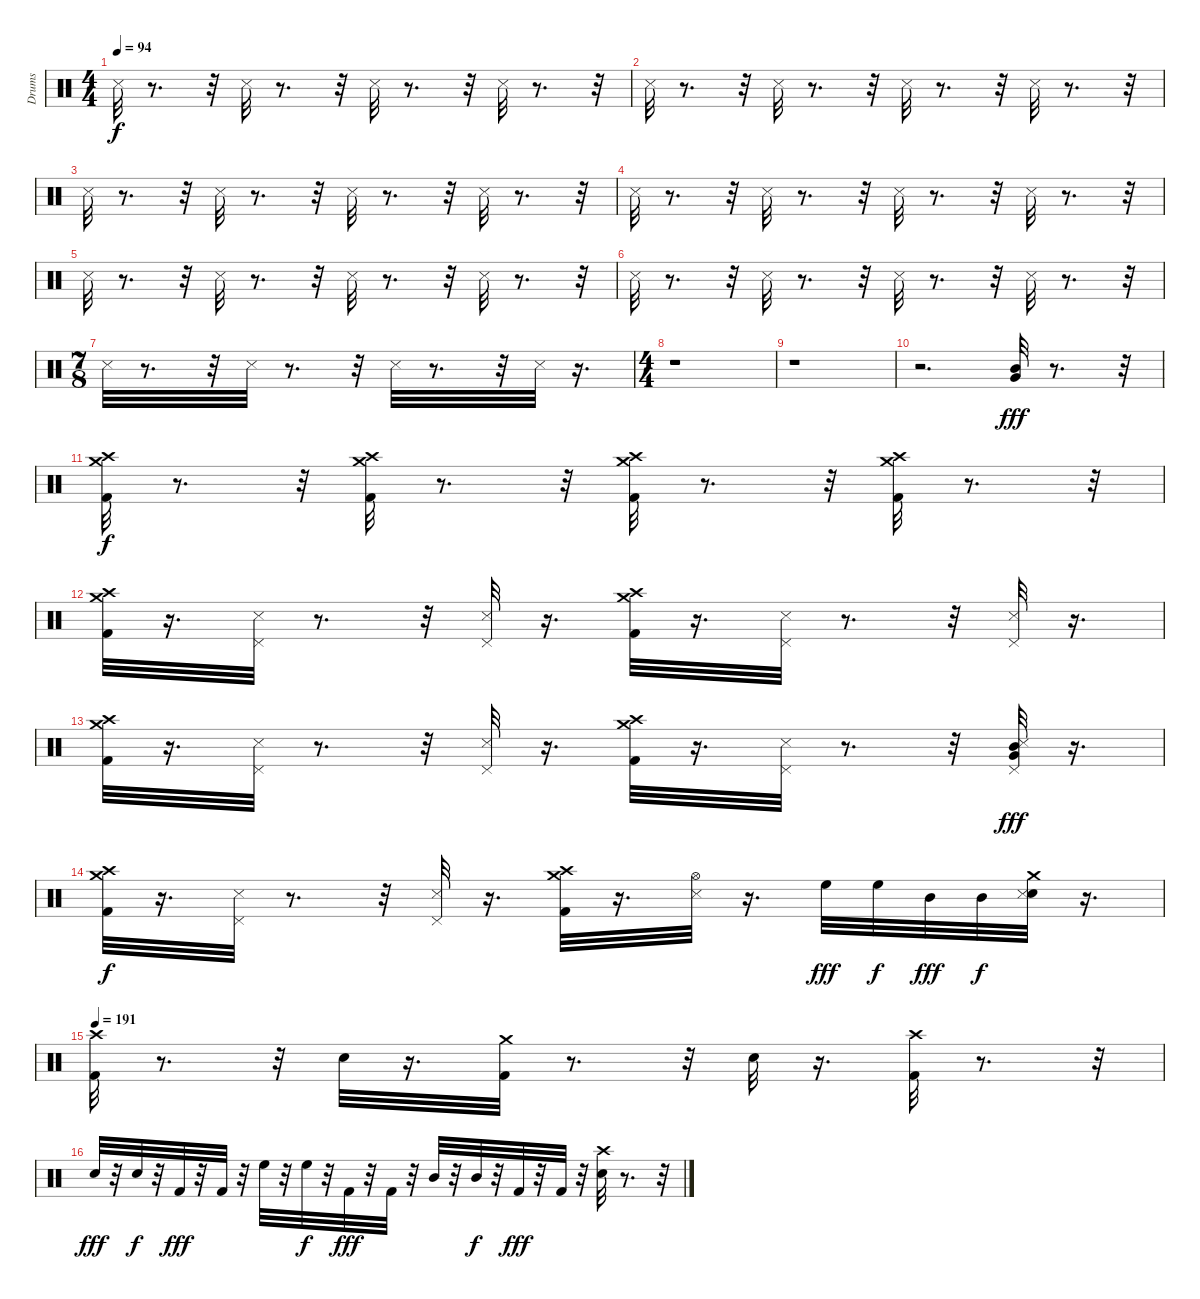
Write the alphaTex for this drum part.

\track ("Drums" "Drums") {instrument percussion}
\staff {score}
\articulation defaults
\ts (4 4)
\tempo 94
\clef neutral
\ks c "Snare (side stick) 3".32{dy f}
r.8{d} r.32 "Snare (side stick) 3".32 r.8{d} r.32 "Snare (side stick) 3".32 r.8{d} r.32 "Snare (side stick) 3".32 r.8{d} r.32 |
"Snare (side stick) 3".32 r.8{d} r.32 "Snare (side stick) 3".32 r.8{d} r.32 "Snare (side stick) 3".32 r.8{d} r.32 "Snare (side stick) 3".32 r.8{d} r.32 |
"Snare (side stick) 3".32 r.8{d} r.32 "Snare (side stick) 3".32 r.8{d} r.32 "Snare (side stick) 3".32 r.8{d} r.32 "Snare (side stick) 3".32 r.8{d} r.32 |
"Snare (side stick) 3".32 r.8{d} r.32 "Snare (side stick) 3".32 r.8{d} r.32 "Snare (side stick) 3".32 r.8{d} r.32 "Snare (side stick) 3".32 r.8{d} r.32 |
"Snare (side stick) 3".32 r.8{d} r.32 "Snare (side stick) 3".32 r.8{d} r.32 "Snare (side stick) 3".32 r.8{d} r.32 "Snare (side stick) 3".32 r.8{d} r.32 |
"Snare (side stick) 3".32 r.8{d} r.32 "Snare (side stick) 3".32 r.8{d} r.32 "Snare (side stick) 3".32 r.8{d} r.32 "Snare (side stick) 3".32 r.8{d} r.32 |
\ts (7 8)
"Snare (side stick) 3".32 r.8{d} r.32 "Snare (side stick) 3".32 r.8{d} r.32 "Snare (side stick) 3".32 r.8{d} r.32 "Snare (side stick) 3".32 r.16{d} |
\ts (4 4)
r.1 |
r.1 |
r.2{d} ("Mid Tom (hit)" "Very Low Tom (hit)").32{dy fff} r.8{d} r.32 |
("Crash high (hit)" "Kick (hit) 2" "Crash medium (hit)").32{dy f} r.8{d} r.32 ("Crash high (hit)" "Kick (hit) 2" "Crash medium (hit)").32 r.8{d} r.32 ("Crash high (hit)" "Kick (hit) 2" "Crash medium (hit)").32 r.8{d} r.32 ("Crash high (hit)" "Kick (hit) 2" "Crash medium (hit)").32 r.8{d} r.32 |
("Crash high (hit)" "Kick (hit) 2" "Crash medium (hit)").32 r.16{d} ("Pedal Hi-Hat (hit)" "Snare (side stick) 3").32 r.8{d} r.32 ("Pedal Hi-Hat (hit)" "Snare (side stick) 3").32 r.16{d} ("Crash high (hit)" "Kick (hit) 2" "Crash medium (hit)").32 r.16{d} ("Pedal Hi-Hat (hit)" "Snare (side stick) 3").32 r.8{d} r.32 ("Pedal Hi-Hat (hit)" "Snare (side stick) 3").32 r.16{d} |
("Crash high (hit)" "Kick (hit) 2" "Crash medium (hit)").32 r.16{d} ("Pedal Hi-Hat (hit)" "Snare (side stick) 3").32 r.8{d} r.32 ("Pedal Hi-Hat (hit)" "Snare (side stick) 3").32 r.16{d} ("Crash high (hit)" "Kick (hit) 2" "Crash medium (hit)").32 r.16{d} ("Pedal Hi-Hat (hit)" "Snare (side stick) 3").32 r.8{d} r.32 ("Pedal Hi-Hat (hit)" "Mid Tom (hit)" "Snare (side stick) 3" "Very Low Tom (hit)").32{dy fff} r.16{d} |
("Crash high (hit)" "Kick (hit) 2" "Crash medium (hit)").32{dy f} r.16{d} ("Pedal Hi-Hat (hit)" "Snare (side stick) 3").32 r.8{d} r.32 ("Pedal Hi-Hat (hit)" "Snare (side stick) 3").32 r.16{d} ("Crash high (hit)" "Kick (hit) 2" "Crash medium (hit)").32 r.16{d} ("Hi-Hat (open)" "Snare (side stick) 3").32 r.16{d} "High Floor Tom (hit)".32{dy fff} "High Floor Tom (hit)".32{dy f} "Mid Tom (hit)".32{dy fff} "Mid Tom (hit)".32{dy f} ("Crash medium (hit)" "Snare (hit) 2" "Snare (side stick) 3").32 r.16{d} |
\tempo 191
("Kick (hit) 2" "Crash high (hit)").32 r.8{d} r.32 "Snare (hit) 2".32 r.16{d} ("Kick (hit) 2" "Crash medium (hit)").32 r.8{d} r.32 "Snare (hit) 2".32 r.16{d} ("Kick (hit) 2" "Crash high (hit)").32 r.8{d} r.32 |
"Snare (hit) 2".32{dy fff} r.32 "Snare (hit) 2".32{dy f} r.32 "Kick (hit) 2".32{dy fff} r.32 "Kick (hit) 2".32 r.32 "High Floor Tom (hit)".32 r.32 "High Floor Tom (hit)".32{dy f} r.32 "Kick (hit) 2".32{dy fff} r.32 "Kick (hit) 2".32 r.32 "Mid Tom (hit)".32 r.32 "Mid Tom (hit)".32{dy f} r.32 "Kick (hit) 2".32{dy fff} r.32 "Kick (hit) 2".32 r.32 ("Crash high (hit)" "Snare (hit) 2").32 r.8{d} r.32
